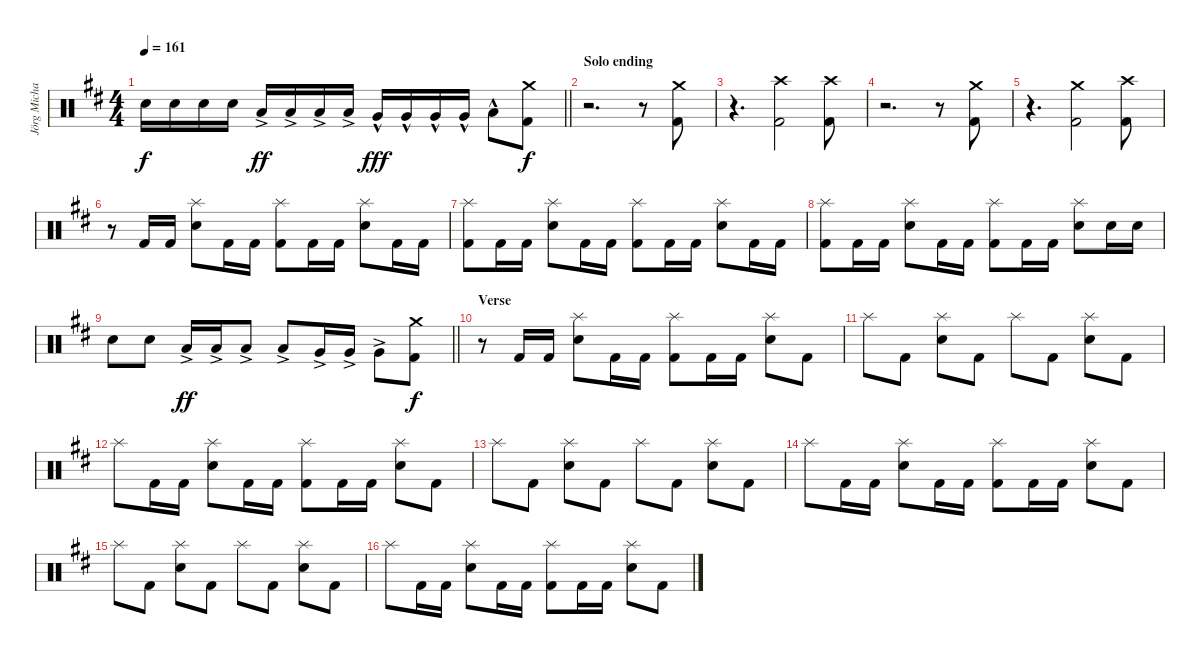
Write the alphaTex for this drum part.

\track ("Jörg Michael" "Jörg Micha") {instrument percussion}
\staff {score}
\articulation defaults
\ts (4 4)
\tempo 161
\clef neutral
\barLineRight lightlight
\ks bminor "Snare (hit) 2".16{dy f} "Snare (hit) 2".16 "Snare (hit) 2".16 "Snare (hit) 2".16 "Low Tom (hit)"{ac}.16{dy ff} "Low Tom (hit)"{ac}.16 "Low Tom (hit)"{ac}.16 "Low Tom (hit)"{ac}.16 "Very Low Tom (hit)"{hac}.16{dy fff} "Very Low Tom (hit)"{hac}.16 "Very Low Tom (hit)"{hac}.16 "Very Low Tom (hit)"{hac}.16 "Low Floor Tom (hit)"{hac}.8
("Crash medium (hit)" "Kick (hit) 2").8{dy f} |
\section ("" "Solo ending")
r.2{d} r.8 ("Crash medium (hit)" "Kick (hit) 2").8 |
r.4{d} ("Crash high (hit)" "Kick (hit) 2").2 ("Crash high (hit)" "Kick (hit) 2").8 |
r.2{d} r.8 ("Crash medium (hit)" "Kick (hit) 2").8 |
r.4{d} ("Crash medium (hit)" "Kick (hit) 2").2 ("Crash high (hit)" "Kick (hit) 2").8 |
r.8 "Kick (hit) 2".16 "Kick (hit) 2".16 ("Splash (hit)" "Snare (hit) 2").8 "Kick (hit) 2".16 "Kick (hit) 2".16 ("Splash (hit)" "Kick (hit) 2").8 "Kick (hit) 2".16 "Kick (hit) 2".16 ("Splash (hit)" "Snare (hit) 2").8 "Kick (hit) 2".16 "Kick (hit) 2".16 |
("Splash (hit)" "Kick (hit) 2").8 "Kick (hit) 2".16 "Kick (hit) 2".16 ("Splash (hit)" "Snare (hit) 2").8 "Kick (hit) 2".16 "Kick (hit) 2".16 ("Splash (hit)" "Kick (hit) 2").8 "Kick (hit) 2".16 "Kick (hit) 2".16 ("Splash (hit)" "Snare (hit) 2").8 "Kick (hit) 2".16 "Kick (hit) 2".16 |
("Splash (hit)" "Kick (hit) 2").8 "Kick (hit) 2".16 "Kick (hit) 2".16 ("Splash (hit)" "Snare (hit) 2").8 "Kick (hit) 2".16 "Kick (hit) 2".16 ("Splash (hit)" "Kick (hit) 2").8 "Kick (hit) 2".16 "Kick (hit) 2".16 ("Splash (hit)" "Snare (hit) 2").8 "Snare (hit) 2".16 "Snare (hit) 2".16 |
\barLineRight lightlight "Snare (hit) 2".8 "Snare (hit) 2".8 "Low Tom (hit)"{ac}.16{dy ff} "Low Tom (hit)"{ac}.16 "Low Tom (hit)"{ac}.8 "Low Tom (hit)"{ac}.8 "Very Low Tom (hit)"{ac}.16 "Very Low Tom (hit)"{ac}.16 "Very Low Tom (hit)"{ac}.8
("Crash medium (hit)" "Kick (hit) 2").8{dy f} |
\section ("" "Verse")
r.8 "Kick (hit) 2".16 "Kick (hit) 2".16 ("Splash (hit)" "Snare (hit) 2").8 "Kick (hit) 2".16 "Kick (hit) 2".16 ("Splash (hit)" "Kick (hit) 2").8 "Kick (hit) 2".16 "Kick (hit) 2".16 ("Splash (hit)" "Snare (hit) 2").8 "Kick (hit) 2".8 |
"Splash (hit)".8 "Kick (hit) 2".8 ("Splash (hit)" "Snare (hit) 2").8 "Kick (hit) 2".8 "Splash (hit)".8 "Kick (hit) 2".8 ("Splash (hit)" "Snare (hit) 2").8 "Kick (hit) 2".8 |
"Splash (hit)".8 "Kick (hit) 2".16 "Kick (hit) 2".16 ("Splash (hit)" "Snare (hit) 2").8 "Kick (hit) 2".16 "Kick (hit) 2".16 ("Splash (hit)" "Kick (hit) 2").8 "Kick (hit) 2".16 "Kick (hit) 2".16 ("Splash (hit)" "Snare (hit) 2").8 "Kick (hit) 2".8 |
"Splash (hit)".8 "Kick (hit) 2".8 ("Splash (hit)" "Snare (hit) 2").8 "Kick (hit) 2".8 "Splash (hit)".8 "Kick (hit) 2".8 ("Splash (hit)" "Snare (hit) 2").8 "Kick (hit) 2".8 |
"Splash (hit)".8 "Kick (hit) 2".16 "Kick (hit) 2".16 ("Splash (hit)" "Snare (hit) 2").8 "Kick (hit) 2".16 "Kick (hit) 2".16 ("Splash (hit)" "Kick (hit) 2").8 "Kick (hit) 2".16 "Kick (hit) 2".16 ("Splash (hit)" "Snare (hit) 2").8 "Kick (hit) 2".8 |
"Splash (hit)".8 "Kick (hit) 2".8 ("Splash (hit)" "Snare (hit) 2").8 "Kick (hit) 2".8 "Splash (hit)".8 "Kick (hit) 2".8 ("Splash (hit)" "Snare (hit) 2").8 "Kick (hit) 2".8 |
"Splash (hit)".8 "Kick (hit) 2".16 "Kick (hit) 2".16 ("Splash (hit)" "Snare (hit) 2").8 "Kick (hit) 2".16 "Kick (hit) 2".16 ("Splash (hit)" "Kick (hit) 2").8 "Kick (hit) 2".16 "Kick (hit) 2".16 ("Splash (hit)" "Snare (hit) 2").8 "Kick (hit) 2".8
